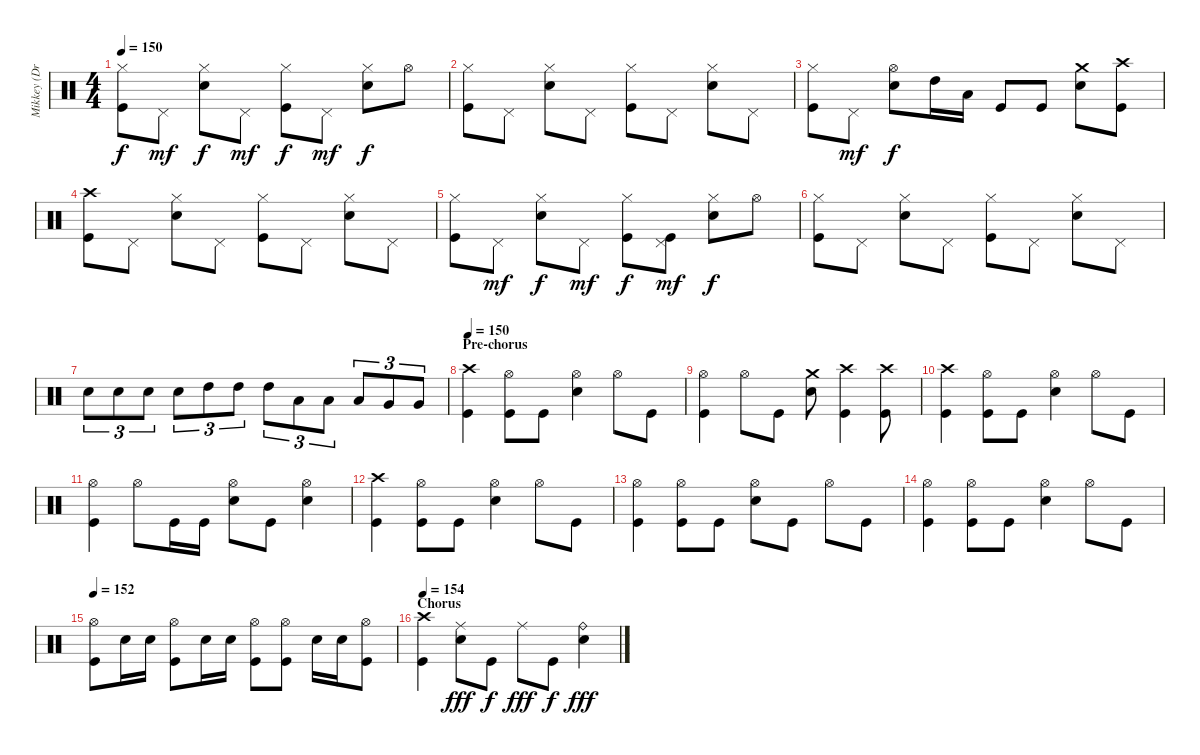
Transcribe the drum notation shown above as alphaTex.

\track ("Mikkey (Drums)" "Mikkey (Dr") {instrument percussion}
\staff {score}
\articulation defaults
\ts (4 4)
\tempo 150
\clef neutral
\ks c
("Hi-Hat (closed)" "Kick (hit)").8{dy f} "Pedal Hi-Hat (hit)".8{dy mf} ("Hi-Hat (closed)" "Electric Snare (hit)").8{dy f} "Pedal Hi-Hat (hit)".8{dy mf} ("Hi-Hat (closed)" "Kick (hit)").8{dy f} "Pedal Hi-Hat (hit)".8{dy mf} ("Hi-Hat (closed)" "Electric Snare (hit)").8{dy f} "Hi-Hat (open)".8 |
("Hi-Hat (closed)" "Kick (hit)").8 "Pedal Hi-Hat (hit)".8 ("Hi-Hat (closed)" "Electric Snare (hit)").8 "Pedal Hi-Hat (hit)".8 ("Hi-Hat (closed)" "Kick (hit)").8 "Pedal Hi-Hat (hit)".8 ("Hi-Hat (closed)" "Electric Snare (hit)").8 "Pedal Hi-Hat (hit)".8 |
("Hi-Hat (closed)" "Kick (hit)").8 "Pedal Hi-Hat (hit)".8{dy mf} ("Hi-Hat (open)" "Electric Snare (hit)").8{dy f} "High Tom (hit)".16 "Low Tom (hit)".16 "Kick (hit)".8 "Kick (hit)".8 ("Crash medium (hit)" "Electric Snare (hit)").8 ("Crash high (hit)" "Kick (hit)").8 |
("Crash high (hit)" "Kick (hit)").8 "Pedal Hi-Hat (hit)".8 ("Hi-Hat (closed)" "Electric Snare (hit)").8 "Pedal Hi-Hat (hit)".8 ("Hi-Hat (closed)" "Kick (hit)").8 "Pedal Hi-Hat (hit)".8 ("Hi-Hat (closed)" "Electric Snare (hit)").8 "Pedal Hi-Hat (hit)".8 |
("Hi-Hat (closed)" "Kick (hit)").8 "Pedal Hi-Hat (hit)".8{dy mf} ("Hi-Hat (closed)" "Electric Snare (hit)").8{dy f} "Pedal Hi-Hat (hit)".8{dy mf} ("Hi-Hat (closed)" "Kick (hit)").8{dy f} ("Pedal Hi-Hat (hit)" "Kick (hit)").8{dy mf} ("Hi-Hat (closed)" "Electric Snare (hit)").8{dy f} "Hi-Hat (open)".8 |
("Hi-Hat (closed)" "Kick (hit)").8 "Pedal Hi-Hat (hit)".8 ("Hi-Hat (closed)" "Electric Snare (hit)").8 "Pedal Hi-Hat (hit)".8 ("Hi-Hat (closed)" "Kick (hit)").8 "Pedal Hi-Hat (hit)".8 ("Hi-Hat (closed)" "Electric Snare (hit)").8 "Pedal Hi-Hat (hit)".8 |
"Electric Snare (hit)".8{tu (3 2)} "Electric Snare (hit)".8{tu (3 2)} "Electric Snare (hit)".8{tu (3 2)} "Electric Snare (hit)".8{tu (3 2)} "High Tom (hit)".8{tu (3 2)} "High Tom (hit)".8{tu (3 2)} "High Tom (hit)".8{tu (3 2)} "Low Tom (hit)".8{tu (3 2)} "Low Tom (hit)".8{tu (3 2)} "Low Tom (hit)".8{tu (3 2)} "Very Low Tom (hit)".8{tu (3 2)} "Very Low Tom (hit)".8{tu (3 2)} |
\section ("" "Pre-chorus")
\tempo 150
("Crash high (hit)" "Kick (hit)").4 ("Hi-Hat (open)" "Kick (hit)").8 "Kick (hit)".8 ("Hi-Hat (open)" "Electric Snare (hit)").4 "Hi-Hat (open)".8 "Kick (hit)".8 |
("Hi-Hat (open)" "Kick (hit)").4 "Hi-Hat (open)".8 "Kick (hit)".8 ("Crash medium (hit)" "Electric Snare (hit)").8 ("Crash high (hit)" "Kick (hit)").4 ("Crash high (hit)" "Kick (hit)").8 |
("Crash high (hit)" "Kick (hit)").4 ("Hi-Hat (open)" "Kick (hit)").8 "Kick (hit)".8 ("Hi-Hat (open)" "Electric Snare (hit)").4 "Hi-Hat (open)".8 "Kick (hit)".8 |
("Hi-Hat (open)" "Kick (hit)").4 "Hi-Hat (open)".8 "Kick (hit)".16 "Kick (hit)".16 ("Hi-Hat (open)" "Electric Snare (hit)").8 "Kick (hit)".8 ("Hi-Hat (open)" "Electric Snare (hit)").4 |
("Crash high (hit)" "Kick (hit)").4 ("Hi-Hat (open)" "Kick (hit)").8 "Kick (hit)".8 ("Hi-Hat (open)" "Electric Snare (hit)").4 "Hi-Hat (open)".8 "Kick (hit)".8 |
("Hi-Hat (open)" "Kick (hit)").4 ("Hi-Hat (open)" "Kick (hit)").8 "Kick (hit)".8 ("Hi-Hat (open)" "Electric Snare (hit)").8 "Kick (hit)".8 "Hi-Hat (open)".8 "Kick (hit)".8 |
("Hi-Hat (open)" "Kick (hit)").4 ("Hi-Hat (open)" "Kick (hit)").8 "Kick (hit)".8 ("Hi-Hat (open)" "Electric Snare (hit)").4 "Hi-Hat (open)".8 "Kick (hit)".8 |
\tempo 152
("Hi-Hat (open)" "Kick (hit)").8 "Electric Snare (hit)".16 "Electric Snare (hit)".16 ("Hi-Hat (open)" "Kick (hit)").8 "Electric Snare (hit)".16 "Electric Snare (hit)".16 ("Hi-Hat (open)" "Kick (hit)").8 ("Hi-Hat (open)" "Kick (hit)").8 "Electric Snare (hit)".16 "Electric Snare (hit)".16 ("Hi-Hat (open)" "Kick (hit)").8 |
\section ("" "Chorus")
\tempo 154
("Crash high (hit)" "Kick (hit)").4 ("Ride (middle)" "Electric Snare (hit)").8{dy fff} "Kick (hit)".8{dy f} "Ride (middle)".8{dy fff} "Kick (hit)".8{dy f} ("Ride (bell)" "Electric Snare (hit)").4{dy fff}
